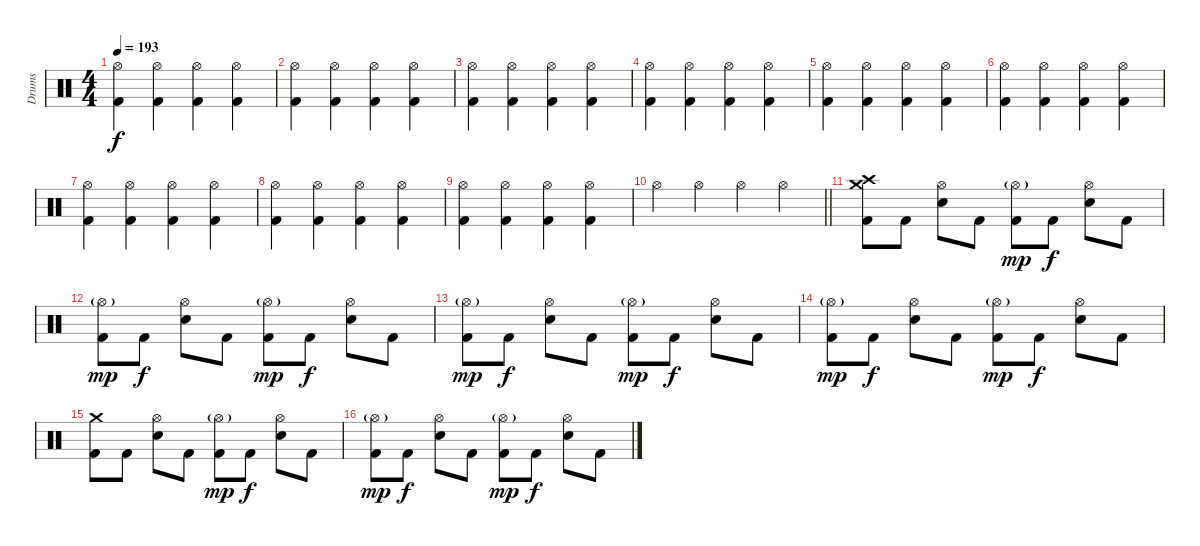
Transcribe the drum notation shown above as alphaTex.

\track ("Drums" "Drums") {instrument percussion}
\staff {score}
\articulation defaults
\ts (4 4)
\tempo 193
\clef neutral
\ks c
("Hi-Hat (open)" "Kick (hit) 2").4{dy f} ("Hi-Hat (open)" "Kick (hit) 2").4 ("Hi-Hat (open)" "Kick (hit) 2").4 ("Hi-Hat (open)" "Kick (hit) 2").4 |
("Hi-Hat (open)" "Kick (hit) 2").4 ("Hi-Hat (open)" "Kick (hit) 2").4 ("Hi-Hat (open)" "Kick (hit) 2").4 ("Hi-Hat (open)" "Kick (hit) 2").4 |
("Hi-Hat (open)" "Kick (hit) 2").4 ("Hi-Hat (open)" "Kick (hit) 2").4 ("Hi-Hat (open)" "Kick (hit) 2").4 ("Hi-Hat (open)" "Kick (hit) 2").4 |
("Hi-Hat (open)" "Kick (hit) 2").4 ("Hi-Hat (open)" "Kick (hit) 2").4 ("Hi-Hat (open)" "Kick (hit) 2").4 ("Hi-Hat (open)" "Kick (hit) 2").4 |
("Hi-Hat (open)" "Kick (hit) 2").4 ("Hi-Hat (open)" "Kick (hit) 2").4 ("Hi-Hat (open)" "Kick (hit) 2").4 ("Hi-Hat (open)" "Kick (hit) 2").4 |
("Hi-Hat (open)" "Kick (hit) 2").4 ("Hi-Hat (open)" "Kick (hit) 2").4 ("Hi-Hat (open)" "Kick (hit) 2").4 ("Hi-Hat (open)" "Kick (hit) 2").4 |
("Hi-Hat (open)" "Kick (hit) 2").4 ("Hi-Hat (open)" "Kick (hit) 2").4 ("Hi-Hat (open)" "Kick (hit) 2").4 ("Hi-Hat (open)" "Kick (hit) 2").4 |
("Hi-Hat (open)" "Kick (hit) 2").4 ("Hi-Hat (open)" "Kick (hit) 2").4 ("Hi-Hat (open)" "Kick (hit) 2").4 ("Hi-Hat (open)" "Kick (hit) 2").4 |
("Hi-Hat (open)" "Kick (hit) 2").4 ("Hi-Hat (open)" "Kick (hit) 2").4 ("Hi-Hat (open)" "Kick (hit) 2").4 ("Hi-Hat (open)" "Kick (hit) 2").4 |
\barLineRight lightlight "Hi-Hat (open)".4 "Hi-Hat (open)".4 "Hi-Hat (open)".4 "Hi-Hat (open)".4
|
("Crash high (hit)" "Crash medium (hit)" "Kick (hit) 2").8 "Kick (hit) 2".8 ("Hi-Hat (open)" "Electric Snare (hit)").8 "Kick (hit) 2".8 ("Hi-Hat (open)"{g} "Kick (hit) 2").8{dy mp} "Kick (hit) 2".8{dy f} ("Hi-Hat (open)" "Electric Snare (hit)").8 "Kick (hit) 2".8 |
("Hi-Hat (open)"{g} "Kick (hit) 2").8{dy mp} "Kick (hit) 2".8{dy f} ("Hi-Hat (open)" "Electric Snare (hit)").8 "Kick (hit) 2".8 ("Hi-Hat (open)"{g} "Kick (hit) 2").8{dy mp} "Kick (hit) 2".8{dy f} ("Hi-Hat (open)" "Electric Snare (hit)").8 "Kick (hit) 2".8 |
("Hi-Hat (open)"{g} "Kick (hit) 2").8{dy mp} "Kick (hit) 2".8{dy f} ("Hi-Hat (open)" "Electric Snare (hit)").8 "Kick (hit) 2".8 ("Hi-Hat (open)"{g} "Kick (hit) 2").8{dy mp} "Kick (hit) 2".8{dy f} ("Hi-Hat (open)" "Electric Snare (hit)").8 "Kick (hit) 2".8 |
("Hi-Hat (open)"{g} "Kick (hit) 2").8{dy mp} "Kick (hit) 2".8{dy f} ("Hi-Hat (open)" "Electric Snare (hit)").8 "Kick (hit) 2".8 ("Hi-Hat (open)"{g} "Kick (hit) 2").8{dy mp} "Kick (hit) 2".8{dy f} ("Hi-Hat (open)" "Electric Snare (hit)").8 "Kick (hit) 2".8 |
("Crash medium (hit)" "Kick (hit) 2").8 "Kick (hit) 2".8 ("Hi-Hat (open)" "Electric Snare (hit)").8 "Kick (hit) 2".8 ("Hi-Hat (open)"{g} "Kick (hit) 2").8{dy mp} "Kick (hit) 2".8{dy f} ("Hi-Hat (open)" "Electric Snare (hit)").8 "Kick (hit) 2".8 |
("Hi-Hat (open)"{g} "Kick (hit) 2").8{dy mp} "Kick (hit) 2".8{dy f} ("Hi-Hat (open)" "Electric Snare (hit)").8 "Kick (hit) 2".8 ("Hi-Hat (open)"{g} "Kick (hit) 2").8{dy mp} "Kick (hit) 2".8{dy f} ("Hi-Hat (open)" "Electric Snare (hit)").8 "Kick (hit) 2".8
